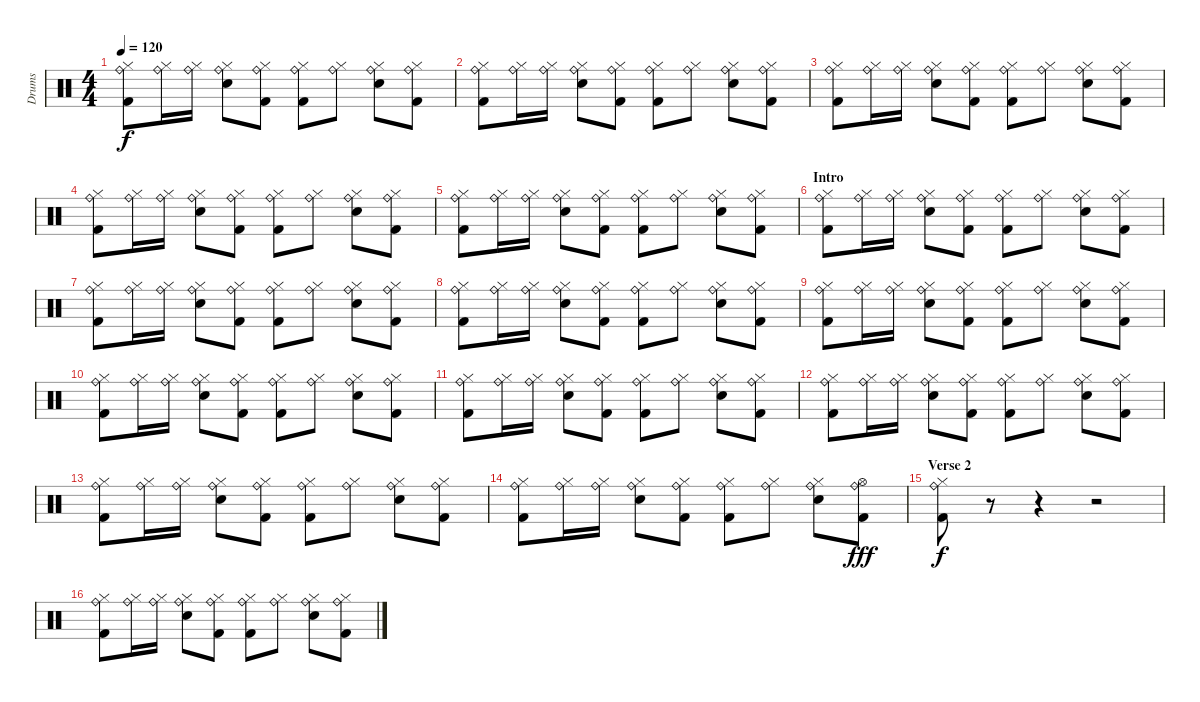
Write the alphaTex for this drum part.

\track ("Drums" "Drums") {instrument percussion}
\staff {score}
\articulation defaults
\ts (4 4)
\tempo 120
\clef neutral
\ks c
("Ride (bell)" "Hi-Hat (closed)" "Kick (hit) 2").8{dy f} ("Ride (bell)" "Hi-Hat (closed)").16 ("Ride (bell)" "Hi-Hat (closed)").16 ("Ride (bell)" "Hi-Hat (closed)" "Snare (hit) 2").8 ("Ride (bell)" "Hi-Hat (closed)" "Kick (hit) 2").8 ("Ride (bell)" "Hi-Hat (closed)" "Kick (hit) 2").8 ("Ride (bell)" "Hi-Hat (closed)").8 ("Ride (bell)" "Hi-Hat (closed)" "Snare (hit) 2").8 ("Ride (bell)" "Hi-Hat (closed)" "Kick (hit) 2").8 |
("Ride (bell)" "Hi-Hat (closed)" "Kick (hit) 2").8 ("Ride (bell)" "Hi-Hat (closed)").16 ("Ride (bell)" "Hi-Hat (closed)").16 ("Ride (bell)" "Hi-Hat (closed)" "Snare (hit) 2").8 ("Ride (bell)" "Hi-Hat (closed)" "Kick (hit) 2").8 ("Ride (bell)" "Hi-Hat (closed)" "Kick (hit) 2").8 ("Ride (bell)" "Hi-Hat (closed)").8 ("Ride (bell)" "Hi-Hat (closed)" "Snare (hit) 2").8 ("Ride (bell)" "Hi-Hat (closed)" "Kick (hit) 2").8 |
("Ride (bell)" "Hi-Hat (closed)" "Kick (hit) 2").8 ("Ride (bell)" "Hi-Hat (closed)").16 ("Ride (bell)" "Hi-Hat (closed)").16 ("Ride (bell)" "Hi-Hat (closed)" "Snare (hit) 2").8 ("Ride (bell)" "Hi-Hat (closed)" "Kick (hit) 2").8 ("Ride (bell)" "Hi-Hat (closed)" "Kick (hit) 2").8 ("Ride (bell)" "Hi-Hat (closed)").8 ("Ride (bell)" "Hi-Hat (closed)" "Snare (hit) 2").8 ("Ride (bell)" "Hi-Hat (closed)" "Kick (hit) 2").8 |
("Ride (bell)" "Hi-Hat (closed)" "Kick (hit) 2").8 ("Ride (bell)" "Hi-Hat (closed)").16 ("Ride (bell)" "Hi-Hat (closed)").16 ("Ride (bell)" "Hi-Hat (closed)" "Snare (hit) 2").8 ("Ride (bell)" "Hi-Hat (closed)" "Kick (hit) 2").8 ("Ride (bell)" "Hi-Hat (closed)" "Kick (hit) 2").8 ("Ride (bell)" "Hi-Hat (closed)").8 ("Ride (bell)" "Hi-Hat (closed)" "Snare (hit) 2").8 ("Ride (bell)" "Hi-Hat (closed)" "Kick (hit) 2").8 |
("Ride (bell)" "Hi-Hat (closed)" "Kick (hit) 2").8 ("Ride (bell)" "Hi-Hat (closed)").16 ("Ride (bell)" "Hi-Hat (closed)").16 ("Ride (bell)" "Hi-Hat (closed)" "Snare (hit) 2").8 ("Ride (bell)" "Hi-Hat (closed)" "Kick (hit) 2").8 ("Ride (bell)" "Hi-Hat (closed)" "Kick (hit) 2").8 ("Ride (bell)" "Hi-Hat (closed)").8 ("Ride (bell)" "Hi-Hat (closed)" "Snare (hit) 2").8 ("Ride (bell)" "Hi-Hat (closed)" "Kick (hit) 2").8 |
\section ("" "Intro")
("Ride (bell)" "Hi-Hat (closed)" "Kick (hit) 2").8 ("Ride (bell)" "Hi-Hat (closed)").16 ("Ride (bell)" "Hi-Hat (closed)").16 ("Ride (bell)" "Hi-Hat (closed)" "Snare (hit) 2").8 ("Ride (bell)" "Hi-Hat (closed)" "Kick (hit) 2").8 ("Ride (bell)" "Hi-Hat (closed)" "Kick (hit) 2").8 ("Ride (bell)" "Hi-Hat (closed)").8 ("Ride (bell)" "Hi-Hat (closed)" "Snare (hit) 2").8 ("Ride (bell)" "Hi-Hat (closed)" "Kick (hit) 2").8 |
("Ride (bell)" "Hi-Hat (closed)" "Kick (hit) 2").8 ("Ride (bell)" "Hi-Hat (closed)").16 ("Ride (bell)" "Hi-Hat (closed)").16 ("Ride (bell)" "Hi-Hat (closed)" "Snare (hit) 2").8 ("Ride (bell)" "Hi-Hat (closed)" "Kick (hit) 2").8 ("Ride (bell)" "Hi-Hat (closed)" "Kick (hit) 2").8 ("Ride (bell)" "Hi-Hat (closed)").8 ("Ride (bell)" "Hi-Hat (closed)" "Snare (hit) 2").8 ("Ride (bell)" "Hi-Hat (closed)" "Kick (hit) 2").8 |
("Ride (bell)" "Hi-Hat (closed)" "Kick (hit) 2").8 ("Ride (bell)" "Hi-Hat (closed)").16 ("Ride (bell)" "Hi-Hat (closed)").16 ("Ride (bell)" "Hi-Hat (closed)" "Snare (hit) 2").8 ("Ride (bell)" "Hi-Hat (closed)" "Kick (hit) 2").8 ("Ride (bell)" "Hi-Hat (closed)" "Kick (hit) 2").8 ("Ride (bell)" "Hi-Hat (closed)").8 ("Ride (bell)" "Hi-Hat (closed)" "Snare (hit) 2").8 ("Ride (bell)" "Hi-Hat (closed)" "Kick (hit) 2").8 |
("Ride (bell)" "Hi-Hat (closed)" "Kick (hit) 2").8 ("Ride (bell)" "Hi-Hat (closed)").16 ("Ride (bell)" "Hi-Hat (closed)").16 ("Ride (bell)" "Hi-Hat (closed)" "Snare (hit) 2").8 ("Ride (bell)" "Hi-Hat (closed)" "Kick (hit) 2").8 ("Ride (bell)" "Hi-Hat (closed)" "Kick (hit) 2").8 ("Ride (bell)" "Hi-Hat (closed)").8 ("Ride (bell)" "Hi-Hat (closed)" "Snare (hit) 2").8 ("Ride (bell)" "Hi-Hat (closed)" "Kick (hit) 2").8 |
("Ride (bell)" "Hi-Hat (closed)" "Kick (hit) 2").8 ("Ride (bell)" "Hi-Hat (closed)").16 ("Ride (bell)" "Hi-Hat (closed)").16 ("Ride (bell)" "Hi-Hat (closed)" "Snare (hit) 2").8 ("Ride (bell)" "Hi-Hat (closed)" "Kick (hit) 2").8 ("Ride (bell)" "Hi-Hat (closed)" "Kick (hit) 2").8 ("Ride (bell)" "Hi-Hat (closed)").8 ("Ride (bell)" "Hi-Hat (closed)" "Snare (hit) 2").8 ("Ride (bell)" "Hi-Hat (closed)" "Kick (hit) 2").8 |
("Ride (bell)" "Hi-Hat (closed)" "Kick (hit) 2").8 ("Ride (bell)" "Hi-Hat (closed)").16 ("Ride (bell)" "Hi-Hat (closed)").16 ("Ride (bell)" "Hi-Hat (closed)" "Snare (hit) 2").8 ("Ride (bell)" "Hi-Hat (closed)" "Kick (hit) 2").8 ("Ride (bell)" "Hi-Hat (closed)" "Kick (hit) 2").8 ("Ride (bell)" "Hi-Hat (closed)").8 ("Ride (bell)" "Hi-Hat (closed)" "Snare (hit) 2").8 ("Ride (bell)" "Hi-Hat (closed)" "Kick (hit) 2").8 |
("Ride (bell)" "Hi-Hat (closed)" "Kick (hit) 2").8 ("Ride (bell)" "Hi-Hat (closed)").16 ("Ride (bell)" "Hi-Hat (closed)").16 ("Ride (bell)" "Hi-Hat (closed)" "Snare (hit) 2").8 ("Ride (bell)" "Hi-Hat (closed)" "Kick (hit) 2").8 ("Ride (bell)" "Hi-Hat (closed)" "Kick (hit) 2").8 ("Ride (bell)" "Hi-Hat (closed)").8 ("Ride (bell)" "Hi-Hat (closed)" "Snare (hit) 2").8 ("Ride (bell)" "Hi-Hat (closed)" "Kick (hit) 2").8 |
("Ride (bell)" "Hi-Hat (closed)" "Kick (hit) 2").8 ("Ride (bell)" "Hi-Hat (closed)").16 ("Ride (bell)" "Hi-Hat (closed)").16 ("Ride (bell)" "Hi-Hat (closed)" "Snare (hit) 2").8 ("Ride (bell)" "Hi-Hat (closed)" "Kick (hit) 2").8 ("Ride (bell)" "Hi-Hat (closed)" "Kick (hit) 2").8 ("Ride (bell)" "Hi-Hat (closed)").8 ("Ride (bell)" "Hi-Hat (closed)" "Snare (hit) 2").8 ("Ride (bell)" "Hi-Hat (closed)" "Kick (hit) 2").8 |
("Ride (bell)" "Hi-Hat (closed)" "Kick (hit) 2").8 ("Ride (bell)" "Hi-Hat (closed)").16 ("Ride (bell)" "Hi-Hat (closed)").16 ("Ride (bell)" "Hi-Hat (closed)" "Snare (hit) 2").8 ("Ride (bell)" "Hi-Hat (closed)" "Kick (hit) 2").8 ("Ride (bell)" "Hi-Hat (closed)" "Kick (hit) 2").8 ("Ride (bell)" "Hi-Hat (closed)").8 ("Ride (bell)" "Hi-Hat (closed)" "Snare (hit) 2").8 ("Ride (bell)" "Hi-Hat (open)" "Kick (hit) 2").8{dy fff} |
\section ("" "Verse 2")
("Ride (bell)" "Hi-Hat (closed)" "Kick (hit) 2").8{dy f} r.8 r.4 r.2 |
("Ride (bell)" "Hi-Hat (closed)" "Kick (hit) 2").8 ("Ride (bell)" "Hi-Hat (closed)").16 ("Ride (bell)" "Hi-Hat (closed)").16 ("Ride (bell)" "Hi-Hat (closed)" "Snare (hit) 2").8 ("Ride (bell)" "Hi-Hat (closed)" "Kick (hit) 2").8 ("Ride (bell)" "Hi-Hat (closed)" "Kick (hit) 2").8 ("Ride (bell)" "Hi-Hat (closed)").8 ("Ride (bell)" "Hi-Hat (closed)" "Snare (hit) 2").8 ("Ride (bell)" "Hi-Hat (closed)" "Kick (hit) 2").8
